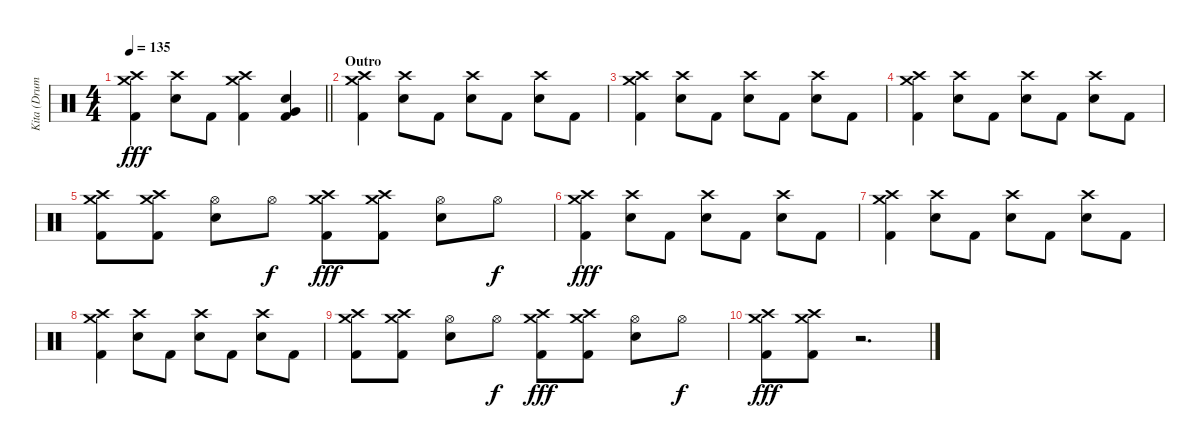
\track ("Kita (Drums)" "Kita (Drum") {instrument percussion}
\staff {score}
\articulation defaults
\ts (4 4)
\tempo 135
\clef neutral
\barLineRight lightlight
\ks c
("Crash medium (hit)" "Crash high (hit)" "Kick (hit) 2").4{dy fff} ("Crash high (hit)" "Electric Snare (hit)").8 "Kick (hit) 2".8 ("Crash medium (hit)" "Crash high (hit)" "Kick (hit) 2").4 ("Very Low Tom (hit)" "Electric Snare (hit)" "Kick (hit) 2").4 |
\section ("" "Outro")
("Crash medium (hit)" "Crash high (hit)" "Kick (hit) 2").4 ("Crash high (hit)" "Electric Snare (hit)").8 "Kick (hit) 2".8 ("Crash high (hit)" "Electric Snare (hit)").8 "Kick (hit) 2".8 ("Crash high (hit)" "Electric Snare (hit)").8 "Kick (hit) 2".8 |
("Crash medium (hit)" "Crash high (hit)" "Kick (hit) 2").4 ("Crash high (hit)" "Electric Snare (hit)").8 "Kick (hit) 2".8 ("Crash high (hit)" "Electric Snare (hit)").8 "Kick (hit) 2".8 ("Crash high (hit)" "Electric Snare (hit)").8 "Kick (hit) 2".8 |
("Crash medium (hit)" "Crash high (hit)" "Kick (hit) 2").4 ("Crash high (hit)" "Electric Snare (hit)").8 "Kick (hit) 2".8 ("Crash high (hit)" "Electric Snare (hit)").8 "Kick (hit) 2".8 ("Crash high (hit)" "Electric Snare (hit)").8 "Kick (hit) 2".8 |
("Crash medium (hit)" "Crash high (hit)" "Kick (hit) 2").8 ("Crash medium (hit)" "Crash high (hit)" "Kick (hit) 2").8 ("Hi-Hat (open)" "Electric Snare (hit)").8 "Hi-Hat (open)".8{dy f} ("Crash medium (hit)" "Crash high (hit)" "Kick (hit) 2").8{dy fff} ("Crash medium (hit)" "Crash high (hit)" "Kick (hit) 2").8 ("Hi-Hat (open)" "Electric Snare (hit)").8 "Hi-Hat (open)".8{dy f} |
("Crash medium (hit)" "Crash high (hit)" "Kick (hit) 2").4{dy fff} ("Crash high (hit)" "Electric Snare (hit)").8 "Kick (hit) 2".8 ("Crash high (hit)" "Electric Snare (hit)").8 "Kick (hit) 2".8 ("Crash high (hit)" "Electric Snare (hit)").8 "Kick (hit) 2".8 |
("Crash medium (hit)" "Crash high (hit)" "Kick (hit) 2").4 ("Crash high (hit)" "Electric Snare (hit)").8 "Kick (hit) 2".8 ("Crash high (hit)" "Electric Snare (hit)").8 "Kick (hit) 2".8 ("Crash high (hit)" "Electric Snare (hit)").8 "Kick (hit) 2".8 |
("Crash medium (hit)" "Crash high (hit)" "Kick (hit) 2").4 ("Crash high (hit)" "Electric Snare (hit)").8 "Kick (hit) 2".8 ("Crash high (hit)" "Electric Snare (hit)").8 "Kick (hit) 2".8 ("Crash high (hit)" "Electric Snare (hit)").8 "Kick (hit) 2".8 |
("Crash medium (hit)" "Crash high (hit)" "Kick (hit) 2").8 ("Crash medium (hit)" "Crash high (hit)" "Kick (hit) 2").8 ("Hi-Hat (open)" "Electric Snare (hit)").8 "Hi-Hat (open)".8{dy f} ("Crash medium (hit)" "Crash high (hit)" "Kick (hit) 2").8{dy fff} ("Crash medium (hit)" "Crash high (hit)" "Kick (hit) 2").8 ("Hi-Hat (open)" "Electric Snare (hit)").8 "Hi-Hat (open)".8{dy f} |
("Crash medium (hit)" "Crash high (hit)" "Kick (hit) 2").8{dy fff} ("Crash medium (hit)" "Crash high (hit)" "Kick (hit) 2").8 r.2{d}
